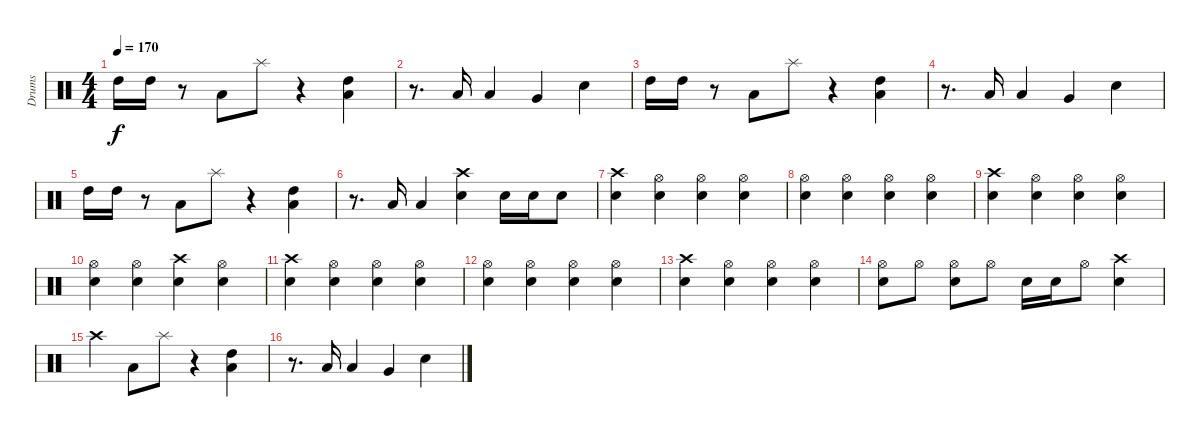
\track ("Drums" "Drums") {instrument percussion}
\staff {score}
\articulation defaults
\ts (4 4)
\tempo 170
\clef neutral
\ks c "High Tom (hit)".16{dy f} "High Tom (hit)".16
r.8 "Low Tom (hit)".8 "Splash (hit)".8 r.4 ("High Tom (hit)" "Low Tom (hit)").4 |
r.8{d} "Low Tom (hit)".16 "Low Tom (hit)".4 "Very Low Tom (hit)".4 "Snare (hit) 2".4 |
"High Tom (hit)".16 "High Tom (hit)".16 r.8 "Low Tom (hit)".8 "Splash (hit)".8 r.4 ("High Tom (hit)" "Low Tom (hit)").4 |
r.8{d} "Low Tom (hit)".16 "Low Tom (hit)".4 "Very Low Tom (hit)".4 "Snare (hit) 2".4 |
"High Tom (hit)".16 "High Tom (hit)".16 r.8 "Low Tom (hit)".8 "Splash (hit)".8 r.4 ("High Tom (hit)" "Low Tom (hit)").4 |
r.8{d} "Low Tom (hit)".16 "Low Tom (hit)".4 ("Crash high (hit)" "Snare (hit) 2").4 "Snare (hit) 2".16 "Snare (hit) 2".16 "Snare (hit) 2".8 |
("Crash high (hit)" "Snare (hit) 2").4 ("Hi-Hat (open)" "Snare (hit) 2").4 ("Hi-Hat (open)" "Snare (hit) 2").4 ("Hi-Hat (open)" "Snare (hit) 2").4 |
("Hi-Hat (open)" "Snare (hit) 2").4 ("Hi-Hat (open)" "Snare (hit) 2").4 ("Hi-Hat (open)" "Snare (hit) 2").4 ("Hi-Hat (open)" "Snare (hit) 2").4 |
("Crash high (hit)" "Snare (hit) 2").4 ("Hi-Hat (open)" "Snare (hit) 2").4 ("Hi-Hat (open)" "Snare (hit) 2").4 ("Hi-Hat (open)" "Snare (hit) 2").4 |
("Hi-Hat (open)" "Snare (hit) 2").4 ("Hi-Hat (open)" "Snare (hit) 2").4 ("Crash high (hit)" "Snare (hit) 2").4 ("Hi-Hat (open)" "Snare (hit) 2").4 |
("Crash high (hit)" "Snare (hit) 2").4 ("Hi-Hat (open)" "Snare (hit) 2").4 ("Hi-Hat (open)" "Snare (hit) 2").4 ("Hi-Hat (open)" "Snare (hit) 2").4 |
("Hi-Hat (open)" "Snare (hit) 2").4 ("Hi-Hat (open)" "Snare (hit) 2").4 ("Hi-Hat (open)" "Snare (hit) 2").4 ("Hi-Hat (open)" "Snare (hit) 2").4 |
("Crash high (hit)" "Snare (hit) 2").4 ("Hi-Hat (open)" "Snare (hit) 2").4 ("Hi-Hat (open)" "Snare (hit) 2").4 ("Hi-Hat (open)" "Snare (hit) 2").4 |
("Hi-Hat (open)" "Snare (hit) 2").8 "Hi-Hat (open)".8 ("Hi-Hat (open)" "Snare (hit) 2").8 "Hi-Hat (open)".8 "Snare (hit) 2".16 "Snare (hit) 2".16 "Hi-Hat (open)".8 ("Crash high (hit)" "Snare (hit) 2").4 |
"Crash high (hit)".4 "Low Tom (hit)".8 "Splash (hit)".8 r.4 ("High Tom (hit)" "Low Tom (hit)").4 |
r.8{d} "Low Tom (hit)".16 "Low Tom (hit)".4 "Very Low Tom (hit)".4 "Snare (hit) 2".4
